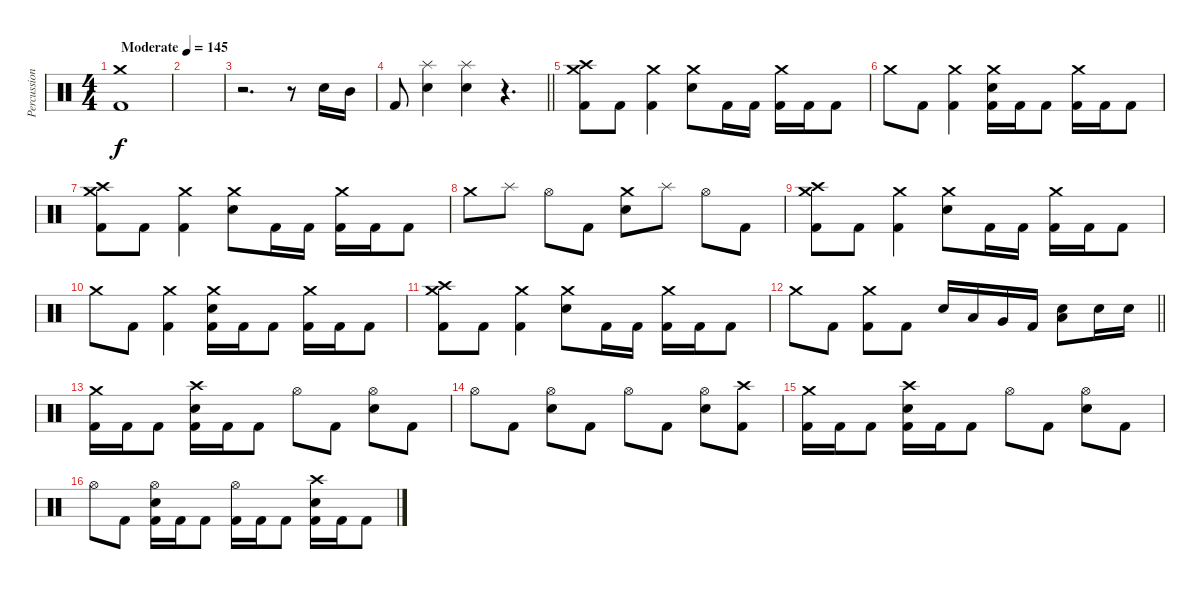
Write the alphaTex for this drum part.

\track ("Percussion" "Percussion") {instrument percussion}
\staff {score}
\articulation defaults
\ts (4 4)
\section ("" "")
\tempo (145 "Moderate")
\clef neutral
\ks c
("Crash medium (hit)" "Kick (hit) 2").1{dy f} |
|
r.2{d} r.8 "Electric Snare (hit)".16 "Mid Tom (hit)".16 |
\barLineRight lightlight "Kick (hit) 2".8
("Splash (hit)" "Electric Snare (hit)").4 ("Splash (hit)" "Electric Snare (hit)").4 r.4{d} |
\section ("" "")
("Crash medium (hit)" "Crash high (hit)" "Kick (hit) 2").8 "Kick (hit) 2".8 ("Crash medium (hit)" "Kick (hit) 2").4 ("Crash medium (hit)" "Electric Snare (hit)").8 "Kick (hit) 2".16 "Kick (hit) 2".16 ("Crash medium (hit)" "Kick (hit) 2").16 "Kick (hit) 2".16 "Kick (hit) 2".8 |
"Crash medium (hit)".8 "Kick (hit) 2".8 ("Crash medium (hit)" "Kick (hit) 2").4 ("Crash medium (hit)" "Electric Snare (hit)" "Kick (hit) 2").16 "Kick (hit) 2".16 "Kick (hit) 2".8 ("Crash medium (hit)" "Kick (hit) 2").16 "Kick (hit) 2".16 "Kick (hit) 2".8 |
("Crash medium (hit)" "Crash high (hit)" "Kick (hit) 2").8 "Kick (hit) 2".8 ("Crash medium (hit)" "Kick (hit) 2").4 ("Crash medium (hit)" "Electric Snare (hit)").8 "Kick (hit) 2".16 "Kick (hit) 2".16 ("Crash medium (hit)" "Kick (hit) 2").16 "Kick (hit) 2".16 "Kick (hit) 2".8 |
"Crash medium (hit)".8 "Splash (hit)".8 "Hi-Hat (open)".8 "Kick (hit) 2".8 ("Crash medium (hit)" "Electric Snare (hit)").8 "Splash (hit)".8 "Hi-Hat (open)".8 "Kick (hit) 2".8 |
("Crash medium (hit)" "Crash high (hit)" "Kick (hit) 2").8 "Kick (hit) 2".8 ("Crash medium (hit)" "Kick (hit) 2").4 ("Crash medium (hit)" "Electric Snare (hit)").8 "Kick (hit) 2".16 "Kick (hit) 2".16 ("Crash medium (hit)" "Kick (hit) 2").16 "Kick (hit) 2".16 "Kick (hit) 2".8 |
"Crash medium (hit)".8 "Kick (hit) 2".8 ("Crash medium (hit)" "Kick (hit) 2").4 ("Crash medium (hit)" "Electric Snare (hit)" "Kick (hit) 2").16 "Kick (hit) 2".16 "Kick (hit) 2".8 ("Crash medium (hit)" "Kick (hit) 2").16 "Kick (hit) 2".16 "Kick (hit) 2".8 |
("Crash medium (hit)" "Crash high (hit)" "Kick (hit) 2").8 "Kick (hit) 2".8 ("Crash medium (hit)" "Kick (hit) 2").4 ("Crash medium (hit)" "Electric Snare (hit)").8 "Kick (hit) 2".16 "Kick (hit) 2".16 ("Crash medium (hit)" "Kick (hit) 2").16 "Kick (hit) 2".16 "Kick (hit) 2".8 |
\barLineRight lightlight "Crash medium (hit)".8 "Kick (hit) 2".8
("Crash medium (hit)" "Kick (hit) 2").8 "Kick (hit) 2".8 "Electric Snare (hit)".16 "Low Tom (hit)".16 "Very Low Tom (hit)".16 "Kick (hit) 2".16 ("Low Tom (hit)" "Electric Snare (hit)").8 "Electric Snare (hit)".16 "Electric Snare (hit)".16 |
\section ("" "")
("Crash medium (hit)" "Kick (hit) 2").16 "Kick (hit) 2".16 "Kick (hit) 2".8 ("Crash high (hit)" "Electric Snare (hit)" "Kick (hit) 2").16 "Kick (hit) 2".16 "Kick (hit) 2".8 "Hi-Hat (open)".8 "Kick (hit) 2".8 ("Hi-Hat (open)" "Electric Snare (hit)").8 "Kick (hit) 2".8 |
"Hi-Hat (open)".8 "Kick (hit) 2".8 ("Hi-Hat (open)" "Electric Snare (hit)").8 "Kick (hit) 2".8 "Hi-Hat (open)".8 "Kick (hit) 2".8 ("Hi-Hat (open)" "Electric Snare (hit)").8 ("Crash high (hit)" "Kick (hit) 2").8 |
("Crash medium (hit)" "Kick (hit) 2").16 "Kick (hit) 2".16 "Kick (hit) 2".8 ("Crash high (hit)" "Electric Snare (hit)" "Kick (hit) 2").16 "Kick (hit) 2".16 "Kick (hit) 2".8 "Hi-Hat (open)".8 "Kick (hit) 2".8 ("Hi-Hat (open)" "Electric Snare (hit)").8 "Kick (hit) 2".8 |
"Hi-Hat (open)".8 "Kick (hit) 2".8 ("Hi-Hat (open)" "Electric Snare (hit)" "Kick (hit) 2").16 "Kick (hit) 2".16 "Kick (hit) 2".8 ("Hi-Hat (open)" "Kick (hit) 2").16 "Kick (hit) 2".16 "Kick (hit) 2".8 ("Crash high (hit)" "Electric Snare (hit)" "Kick (hit) 2").16 "Kick (hit) 2".16 "Kick (hit) 2".8
